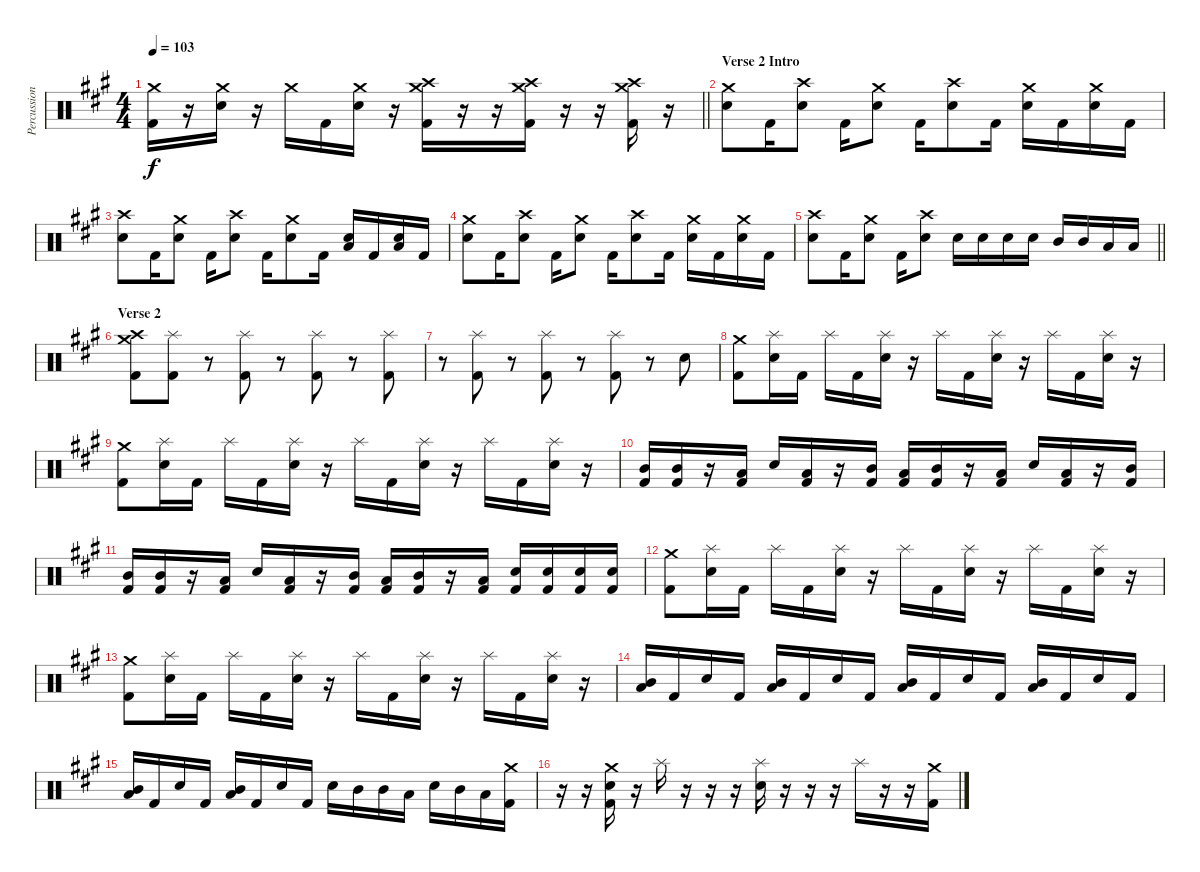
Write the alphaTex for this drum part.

\track ("Percussion" "Percussion") {instrument percussion}
\staff {score}
\articulation defaults
\ts (4 4)
\tempo 103
\clef neutral
\barLineRight lightlight
\ks f#minor
("Crash medium (hit)" "Kick (hit) 2").16{dy f} r.16 ("Crash medium (hit)" "Electric Snare (hit)").16 r.16 "Crash medium (hit)".16 "Kick (hit) 2".16 ("Crash medium (hit)" "Electric Snare (hit)").16 r.16 ("Crash high (hit)" "Crash medium (hit)" "Kick (hit) 2").16 r.16 r.16 ("Crash high (hit)" "Crash medium (hit)" "Kick (hit) 2").16 r.16 r.16 ("Crash high (hit)" "Crash medium (hit)" "Kick (hit) 2").16 r.16 |
\section ("" "Verse 2 Intro")
("Crash medium (hit)" "Electric Snare (hit)").8 "Kick (hit) 2".16 ("Crash high (hit)" "Electric Snare (hit)").8 "Kick (hit) 2".16 ("Crash medium (hit)" "Electric Snare (hit)").8 "Kick (hit) 2".16 ("Crash high (hit)" "Electric Snare (hit)").8 "Kick (hit) 2".16 ("Crash medium (hit)" "Electric Snare (hit)").16 "Kick (hit) 2".16 ("Crash medium (hit)" "Electric Snare (hit)").16 "Kick (hit) 2".16 |
("Crash high (hit)" "Electric Snare (hit)").8 "Kick (hit) 2".16 ("Crash medium (hit)" "Electric Snare (hit)").8 "Kick (hit) 2".16 ("Crash high (hit)" "Electric Snare (hit)").8 "Kick (hit) 2".16 ("Crash medium (hit)" "Electric Snare (hit)").8 "Kick (hit) 2".16 ("Low Tom (hit)" "Electric Snare (hit)").16 "Kick (hit) 2".16 ("Low Tom (hit)" "Electric Snare (hit)").16 "Kick (hit) 2".16 |
("Crash medium (hit)" "Electric Snare (hit)").8 "Kick (hit) 2".16 ("Crash high (hit)" "Electric Snare (hit)").8 "Kick (hit) 2".16 ("Crash medium (hit)" "Electric Snare (hit)").8 "Kick (hit) 2".16 ("Crash high (hit)" "Electric Snare (hit)").8 "Kick (hit) 2".16 ("Crash medium (hit)" "Electric Snare (hit)").16 "Kick (hit) 2".16 ("Crash medium (hit)" "Electric Snare (hit)").16 "Kick (hit) 2".16 |
\barLineRight lightlight
("Crash high (hit)" "Electric Snare (hit)").8 "Kick (hit) 2".16 ("Crash medium (hit)" "Electric Snare (hit)").8 "Kick (hit) 2".16 ("Crash high (hit)" "Electric Snare (hit)").8 "Electric Snare (hit)".16 "Electric Snare (hit)".16 "Electric Snare (hit)".16 "Electric Snare (hit)".16 "Mid Tom (hit)".16 "Mid Tom (hit)".16 "Low Tom (hit)".16 "Low Tom (hit)".16 |
\section ("" "Verse 2")
("Crash high (hit)" "Crash medium (hit)" "Kick (hit) 2").8 ("Splash (hit)" "Kick (hit) 2").8 r.8 ("Splash (hit)" "Kick (hit) 2").8 r.8 ("Splash (hit)" "Kick (hit) 2").8 r.8 ("Splash (hit)" "Kick (hit) 2").8 |
r.8 ("Splash (hit)" "Kick (hit) 2").8 r.8 ("Splash (hit)" "Kick (hit) 2").8 r.8 ("Splash (hit)" "Kick (hit) 2").8 r.8 "Electric Snare (hit)".8 |
("Crash medium (hit)" "Kick (hit) 2").8 ("Splash (hit)" "Electric Snare (hit)").16 "Kick (hit) 2".16 "Splash (hit)".16 "Kick (hit) 2".16 ("Splash (hit)" "Electric Snare (hit)").16 r.16 "Splash (hit)".16 "Kick (hit) 2".16 ("Splash (hit)" "Electric Snare (hit)").16 r.16 "Splash (hit)".16 "Kick (hit) 2".16 ("Splash (hit)" "Electric Snare (hit)").16 r.16 |
("Crash medium (hit)" "Kick (hit) 2").8 ("Splash (hit)" "Electric Snare (hit)").16 "Kick (hit) 2".16 "Splash (hit)".16 "Kick (hit) 2".16 ("Splash (hit)" "Electric Snare (hit)").16 r.16 "Splash (hit)".16 "Kick (hit) 2".16 ("Splash (hit)" "Electric Snare (hit)").16 r.16 "Splash (hit)".16 "Kick (hit) 2".16 ("Splash (hit)" "Electric Snare (hit)").16 r.16 |
("Mid Tom (hit)" "Kick (hit) 2").16 ("Mid Tom (hit)" "Kick (hit) 2").16 r.16 ("Low Tom (hit)" "Kick (hit) 2").16 "Electric Snare (hit)".16 ("Low Tom (hit)" "Kick (hit) 2").16 r.16 ("Mid Tom (hit)" "Kick (hit) 2").16 ("Low Tom (hit)" "Kick (hit) 2").16 ("Mid Tom (hit)" "Kick (hit) 2").16 r.16 ("Low Tom (hit)" "Kick (hit) 2").16 "Electric Snare (hit)".16 ("Low Tom (hit)" "Kick (hit) 2").16 r.16 ("Mid Tom (hit)" "Kick (hit) 2").16 |
("Mid Tom (hit)" "Kick (hit) 2").16 ("Mid Tom (hit)" "Kick (hit) 2").16 r.16 ("Low Tom (hit)" "Kick (hit) 2").16 "Electric Snare (hit)".16 ("Low Tom (hit)" "Kick (hit) 2").16 r.16 ("Mid Tom (hit)" "Kick (hit) 2").16 ("Low Tom (hit)" "Kick (hit) 2").16 ("Mid Tom (hit)" "Kick (hit) 2").16 r.16 ("Low Tom (hit)" "Kick (hit) 2").16 ("Electric Snare (hit)" "Kick (hit) 2").16 ("Electric Snare (hit)" "Kick (hit) 2").16 ("Electric Snare (hit)" "Kick (hit) 2").16 ("Electric Snare (hit)" "Kick (hit) 2").16 |
("Crash medium (hit)" "Kick (hit) 2").8 ("Splash (hit)" "Electric Snare (hit)").16 "Kick (hit) 2".16 "Splash (hit)".16 "Kick (hit) 2".16 ("Splash (hit)" "Electric Snare (hit)").16 r.16 "Splash (hit)".16 "Kick (hit) 2".16 ("Splash (hit)" "Electric Snare (hit)").16 r.16 "Splash (hit)".16 "Kick (hit) 2".16 ("Splash (hit)" "Electric Snare (hit)").16 r.16 |
("Crash medium (hit)" "Kick (hit) 2").8 ("Splash (hit)" "Electric Snare (hit)").16 "Kick (hit) 2".16 "Splash (hit)".16 "Kick (hit) 2".16 ("Splash (hit)" "Electric Snare (hit)").16 r.16 "Splash (hit)".16 "Kick (hit) 2".16 ("Splash (hit)" "Electric Snare (hit)").16 r.16 "Splash (hit)".16 "Kick (hit) 2".16 ("Splash (hit)" "Electric Snare (hit)").16 r.16 |
("Mid Tom (hit)" "Low Tom (hit)").16 "Kick (hit) 2".16 "Electric Snare (hit)".16 "Kick (hit) 2".16 ("Mid Tom (hit)" "Low Tom (hit)").16 "Kick (hit) 2".16 "Electric Snare (hit)".16 "Kick (hit) 2".16 ("Mid Tom (hit)" "Low Tom (hit)").16 "Kick (hit) 2".16 "Electric Snare (hit)".16 "Kick (hit) 2".16 ("Mid Tom (hit)" "Low Tom (hit)").16 "Kick (hit) 2".16 "Electric Snare (hit)".16 "Kick (hit) 2".16 |
("Mid Tom (hit)" "Low Tom (hit)").16 "Kick (hit) 2".16 "Electric Snare (hit)".16 "Kick (hit) 2".16 ("Mid Tom (hit)" "Low Tom (hit)").16 "Kick (hit) 2".16 "Electric Snare (hit)".16 "Kick (hit) 2".16 "Electric Snare (hit)".16 "Mid Tom (hit)".16 "Mid Tom (hit)".16 "Low Tom (hit)".16 "Electric Snare (hit)".16 "Mid Tom (hit)".16 "Low Tom (hit)".16 ("Crash medium (hit)" "Kick (hit) 2").16 |
r.16 r.16 ("Crash medium (hit)" "Electric Snare (hit)" "Kick (hit) 2").16 r.16 "Splash (hit)".16 r.16 r.16 r.16 ("Splash (hit)" "Electric Snare (hit)").16 r.16 r.16 r.16 "Splash (hit)".16 r.16 r.16 ("Crash medium (hit)" "Kick (hit) 2").16
